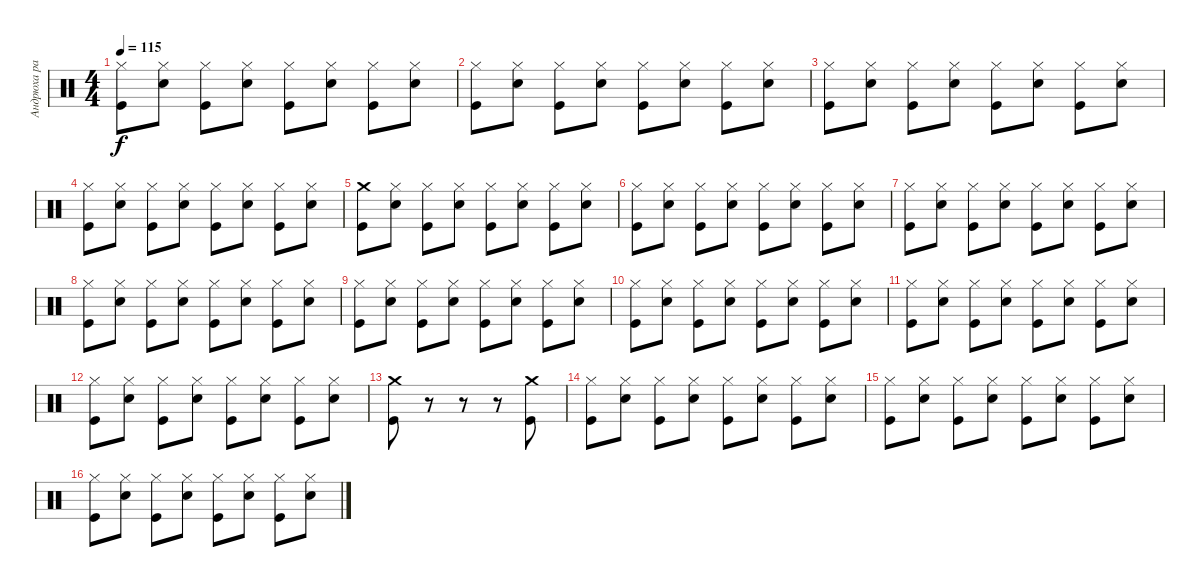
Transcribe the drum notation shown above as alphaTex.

\track ("Андрюха радостный" "Андрюха ра") {instrument percussion}
\staff {score}
\articulation defaults
\ts (4 4)
\tempo 115
\clef neutral
\ks c
("Hi-Hat (closed)" "Kick (hit)").8{dy f} ("Hi-Hat (closed)" "Electric Snare (hit)").8 ("Hi-Hat (closed)" "Kick (hit)").8 ("Hi-Hat (closed)" "Electric Snare (hit)").8 ("Hi-Hat (closed)" "Kick (hit)").8 ("Hi-Hat (closed)" "Electric Snare (hit)").8 ("Hi-Hat (closed)" "Kick (hit)").8 ("Hi-Hat (closed)" "Electric Snare (hit)").8 |
("Hi-Hat (closed)" "Kick (hit)").8 ("Hi-Hat (closed)" "Electric Snare (hit)").8 ("Hi-Hat (closed)" "Kick (hit)").8 ("Hi-Hat (closed)" "Electric Snare (hit)").8 ("Hi-Hat (closed)" "Kick (hit)").8 ("Hi-Hat (closed)" "Electric Snare (hit)").8 ("Hi-Hat (closed)" "Kick (hit)").8 ("Hi-Hat (closed)" "Electric Snare (hit)").8 |
("Hi-Hat (closed)" "Kick (hit)").8 ("Hi-Hat (closed)" "Electric Snare (hit)").8 ("Hi-Hat (closed)" "Kick (hit)").8 ("Hi-Hat (closed)" "Electric Snare (hit)").8 ("Hi-Hat (closed)" "Kick (hit)").8 ("Hi-Hat (closed)" "Electric Snare (hit)").8 ("Hi-Hat (closed)" "Kick (hit)").8 ("Hi-Hat (closed)" "Electric Snare (hit)").8 |
("Hi-Hat (closed)" "Kick (hit)").8 ("Hi-Hat (closed)" "Electric Snare (hit)").8 ("Hi-Hat (closed)" "Kick (hit)").8 ("Hi-Hat (closed)" "Electric Snare (hit)").8 ("Hi-Hat (closed)" "Kick (hit)").8 ("Hi-Hat (closed)" "Electric Snare (hit)").8 ("Hi-Hat (closed)" "Kick (hit)").8 ("Hi-Hat (closed)" "Electric Snare (hit)").8 |
("Crash medium (hit)" "Kick (hit)").8 ("Hi-Hat (closed)" "Electric Snare (hit)").8 ("Hi-Hat (closed)" "Kick (hit)").8 ("Hi-Hat (closed)" "Electric Snare (hit)").8 ("Hi-Hat (closed)" "Kick (hit)").8 ("Hi-Hat (closed)" "Electric Snare (hit)").8 ("Hi-Hat (closed)" "Kick (hit)").8 ("Hi-Hat (closed)" "Electric Snare (hit)").8 |
("Hi-Hat (closed)" "Kick (hit)").8 ("Hi-Hat (closed)" "Electric Snare (hit)").8 ("Hi-Hat (closed)" "Kick (hit)").8 ("Hi-Hat (closed)" "Electric Snare (hit)").8 ("Hi-Hat (closed)" "Kick (hit)").8 ("Hi-Hat (closed)" "Electric Snare (hit)").8 ("Hi-Hat (closed)" "Kick (hit)").8 ("Hi-Hat (closed)" "Electric Snare (hit)").8 |
("Hi-Hat (closed)" "Kick (hit)").8 ("Hi-Hat (closed)" "Electric Snare (hit)").8 ("Hi-Hat (closed)" "Kick (hit)").8 ("Hi-Hat (closed)" "Electric Snare (hit)").8 ("Hi-Hat (closed)" "Kick (hit)").8 ("Hi-Hat (closed)" "Electric Snare (hit)").8 ("Hi-Hat (closed)" "Kick (hit)").8 ("Hi-Hat (closed)" "Electric Snare (hit)").8 |
("Hi-Hat (closed)" "Kick (hit)").8 ("Hi-Hat (closed)" "Electric Snare (hit)").8 ("Hi-Hat (closed)" "Kick (hit)").8 ("Hi-Hat (closed)" "Electric Snare (hit)").8 ("Hi-Hat (closed)" "Kick (hit)").8 ("Hi-Hat (closed)" "Electric Snare (hit)").8 ("Hi-Hat (closed)" "Kick (hit)").8 ("Hi-Hat (closed)" "Electric Snare (hit)").8 |
("Hi-Hat (closed)" "Kick (hit)").8 ("Hi-Hat (closed)" "Electric Snare (hit)").8 ("Hi-Hat (closed)" "Kick (hit)").8 ("Hi-Hat (closed)" "Electric Snare (hit)").8 ("Hi-Hat (closed)" "Kick (hit)").8 ("Hi-Hat (closed)" "Electric Snare (hit)").8 ("Hi-Hat (closed)" "Kick (hit)").8 ("Hi-Hat (closed)" "Electric Snare (hit)").8 |
("Hi-Hat (closed)" "Kick (hit)").8 ("Hi-Hat (closed)" "Electric Snare (hit)").8 ("Hi-Hat (closed)" "Kick (hit)").8 ("Hi-Hat (closed)" "Electric Snare (hit)").8 ("Hi-Hat (closed)" "Kick (hit)").8 ("Hi-Hat (closed)" "Electric Snare (hit)").8 ("Hi-Hat (closed)" "Kick (hit)").8 ("Hi-Hat (closed)" "Electric Snare (hit)").8 |
("Hi-Hat (closed)" "Kick (hit)").8 ("Hi-Hat (closed)" "Electric Snare (hit)").8 ("Hi-Hat (closed)" "Kick (hit)").8 ("Hi-Hat (closed)" "Electric Snare (hit)").8 ("Hi-Hat (closed)" "Kick (hit)").8 ("Hi-Hat (closed)" "Electric Snare (hit)").8 ("Hi-Hat (closed)" "Kick (hit)").8 ("Hi-Hat (closed)" "Electric Snare (hit)").8 |
("Hi-Hat (closed)" "Kick (hit)").8 ("Hi-Hat (closed)" "Electric Snare (hit)").8 ("Hi-Hat (closed)" "Kick (hit)").8 ("Hi-Hat (closed)" "Electric Snare (hit)").8 ("Hi-Hat (closed)" "Kick (hit)").8 ("Hi-Hat (closed)" "Electric Snare (hit)").8 ("Hi-Hat (closed)" "Kick (hit)").8 ("Hi-Hat (closed)" "Electric Snare (hit)").8 |
("Crash medium (hit)" "Kick (hit)").8 r.8 r.8 r.8 ("Crash medium (hit)" "Kick (hit)").8 |
("Hi-Hat (closed)" "Kick (hit)").8 ("Hi-Hat (closed)" "Electric Snare (hit)").8 ("Hi-Hat (closed)" "Kick (hit)").8 ("Hi-Hat (closed)" "Electric Snare (hit)").8 ("Hi-Hat (closed)" "Kick (hit)").8 ("Hi-Hat (closed)" "Electric Snare (hit)").8 ("Hi-Hat (closed)" "Kick (hit)").8 ("Hi-Hat (closed)" "Electric Snare (hit)").8 |
("Hi-Hat (closed)" "Kick (hit)").8 ("Hi-Hat (closed)" "Electric Snare (hit)").8 ("Hi-Hat (closed)" "Kick (hit)").8 ("Hi-Hat (closed)" "Electric Snare (hit)").8 ("Hi-Hat (closed)" "Kick (hit)").8 ("Hi-Hat (closed)" "Electric Snare (hit)").8 ("Hi-Hat (closed)" "Kick (hit)").8 ("Hi-Hat (closed)" "Electric Snare (hit)").8 |
("Hi-Hat (closed)" "Kick (hit)").8 ("Hi-Hat (closed)" "Electric Snare (hit)").8 ("Hi-Hat (closed)" "Kick (hit)").8 ("Hi-Hat (closed)" "Electric Snare (hit)").8 ("Hi-Hat (closed)" "Kick (hit)").8 ("Hi-Hat (closed)" "Electric Snare (hit)").8 ("Hi-Hat (closed)" "Kick (hit)").8 ("Hi-Hat (closed)" "Electric Snare (hit)").8
